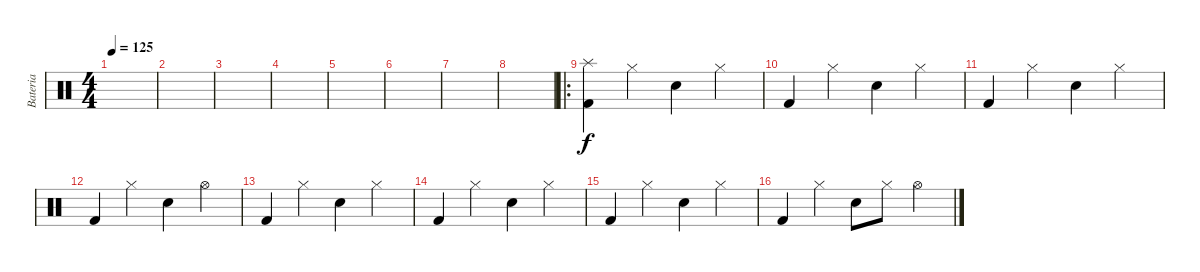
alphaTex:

\track ("Bateria" "Bateria") {instrument percussion}
\staff {score}
\articulation defaults
\ts (4 4)
\tempo 125
\clef neutral
\ks c
|
|
|
|
|
|
|
|
\ro
("Kick (hit) 2" "Splash (hit)").4 "Hi-Hat (closed)".4 "Electric Snare (hit)".4 "Hi-Hat (closed)".4 |
"Kick (hit) 2".4 "Hi-Hat (closed)".4 "Electric Snare (hit)".4 "Hi-Hat (closed)".4 |
"Kick (hit) 2".4 "Hi-Hat (closed)".4 "Electric Snare (hit)".4 "Hi-Hat (closed)".4 |
"Kick (hit) 2".4 "Hi-Hat (closed)".4 "Electric Snare (hit)".4 "Hi-Hat (open)".4 |
"Kick (hit) 2".4 "Hi-Hat (closed)".4 "Electric Snare (hit)".4 "Hi-Hat (closed)".4 |
"Kick (hit) 2".4 "Hi-Hat (closed)".4 "Electric Snare (hit)".4 "Hi-Hat (closed)".4 |
"Kick (hit) 2".4 "Hi-Hat (closed)".4 "Electric Snare (hit)".4 "Hi-Hat (closed)".4 |
"Kick (hit) 2".4 "Hi-Hat (closed)".4 "Electric Snare (hit)".8 "Hi-Hat (closed)".8 "Hi-Hat (open)".4
